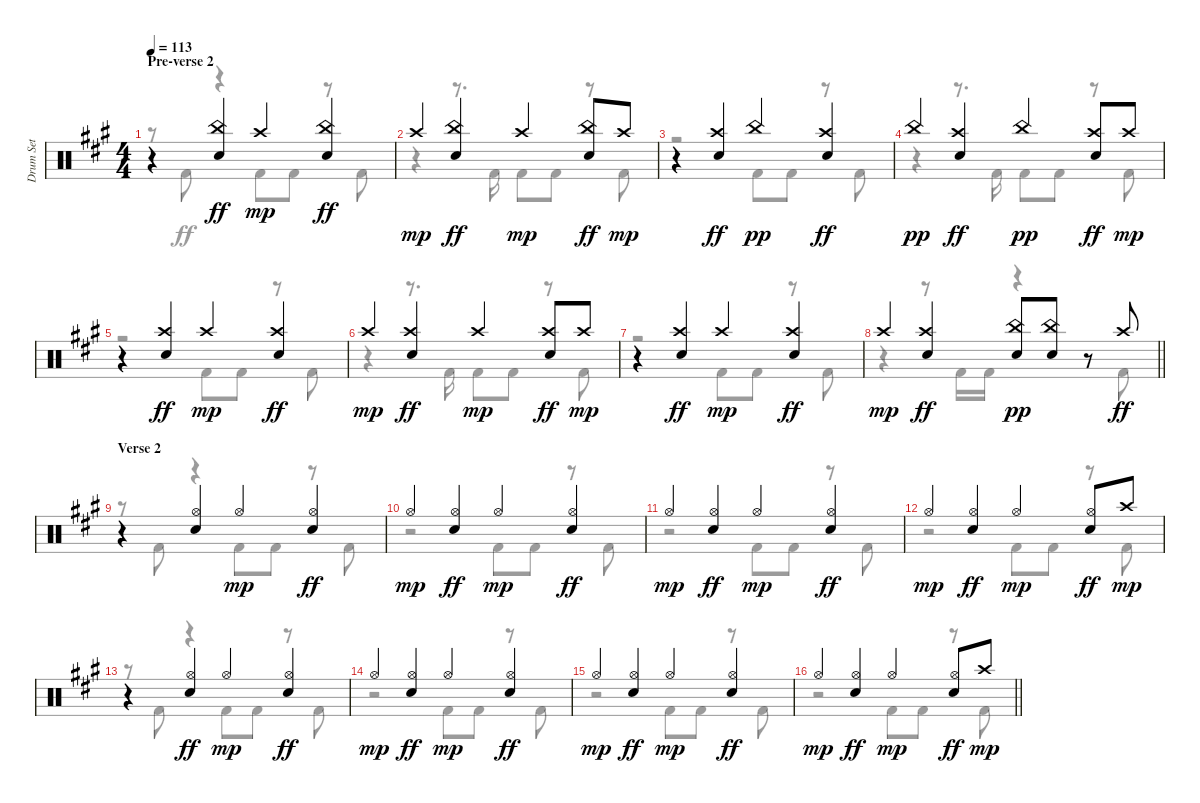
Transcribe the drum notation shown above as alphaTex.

\track ("Drum Set" "Drum Set") {instrument percussion}
\staff {score}
\articulation defaults
\voice
\ts (4 4)
\section ("" "Pre-verse 2")
\tempo 113
\clef neutral
\ks f#minor
r.4{dy mp} ("China (hit)" "Electric Snare (hit)").4{dy ff} "Crash high (hit)".4{dy mp} ("China (hit)" "Electric Snare (hit)").4{dy ff} |
"Crash high (hit)".4{dy mp} ("China (hit)" "Electric Snare (hit)").4{dy ff} "Crash high (hit)".4{dy mp} ("China (hit)" "Electric Snare (hit)").8{dy ff} "Crash high (hit)".8{dy mp} |
r.4 ("Crash high (hit)" "Electric Snare (hit)").4{dy ff} "China (hit)".4{dy pp} ("Crash high (hit)" "Electric Snare (hit)").4{dy ff} |
"China (hit)".4{dy pp} ("Crash high (hit)" "Electric Snare (hit)").4{dy ff} "China (hit)".4{dy pp} ("Crash high (hit)" "Electric Snare (hit)").8{dy ff} "Crash high (hit)".8{dy mp} |
r.4 ("Crash high (hit)" "Electric Snare (hit)").4{dy ff} "Crash high (hit)".4{dy mp} ("Crash high (hit)" "Electric Snare (hit)").4{dy ff} |
"Crash high (hit)".4{dy mp} ("Crash high (hit)" "Electric Snare (hit)").4{dy ff} "Crash high (hit)".4{dy mp} ("Crash high (hit)" "Electric Snare (hit)").8{dy ff} "Crash high (hit)".8{dy mp} |
r.4 ("Crash high (hit)" "Electric Snare (hit)").4{dy ff} "Crash high (hit)".4{dy mp} ("Crash high (hit)" "Electric Snare (hit)").4{dy ff} |
\barLineRight lightlight "Crash high (hit)".4{dy mp}
("Crash high (hit)" "Electric Snare (hit)").4{dy ff} ("Electric Snare (hit)" "China (hit)").8{dy pp} ("Electric Snare (hit)" "China (hit)").8 r.8 "Crash high (hit)".8{dy ff} |
\section ("" "Verse 2")
r.4 ("Hi-Hat (open)" "Electric Snare (hit)").4 "Hi-Hat (open)".4{dy mp} ("Hi-Hat (open)" "Electric Snare (hit)").4{dy ff} |
"Hi-Hat (open)".4{dy mp} ("Hi-Hat (open)" "Electric Snare (hit)").4{dy ff} "Hi-Hat (open)".4{dy mp} ("Hi-Hat (open)" "Electric Snare (hit)").4{dy ff} |
"Hi-Hat (open)".4{dy mp} ("Hi-Hat (open)" "Electric Snare (hit)").4{dy ff} "Hi-Hat (open)".4{dy mp} ("Hi-Hat (open)" "Electric Snare (hit)").4{dy ff} |
"Hi-Hat (open)".4{dy mp} ("Hi-Hat (open)" "Electric Snare (hit)").4{dy ff} "Hi-Hat (open)".4{dy mp} ("Hi-Hat (open)" "Electric Snare (hit)").8{dy ff} "Crash high (hit)".8{dy mp} |
r.4 ("Hi-Hat (open)" "Electric Snare (hit)").4{dy ff} "Hi-Hat (open)".4{dy mp} ("Hi-Hat (open)" "Electric Snare (hit)").4{dy ff} |
"Hi-Hat (open)".4{dy mp} ("Hi-Hat (open)" "Electric Snare (hit)").4{dy ff} "Hi-Hat (open)".4{dy mp} ("Hi-Hat (open)" "Electric Snare (hit)").4{dy ff} |
"Hi-Hat (open)".4{dy mp} ("Hi-Hat (open)" "Electric Snare (hit)").4{dy ff} "Hi-Hat (open)".4{dy mp} ("Hi-Hat (open)" "Electric Snare (hit)").4{dy ff} |
\barLineRight lightlight "Hi-Hat (open)".4{dy mp}
("Hi-Hat (open)" "Electric Snare (hit)").4{dy ff} "Hi-Hat (open)".4{dy mp} ("Hi-Hat (open)" "Electric Snare (hit)").8{dy ff} "Crash high (hit)".8{dy mp}
\voice
\clef neutral
\ottava regular
\simile none
\ks f#minor
r.8{dy ff} "Kick (hit) 2".8 r.4 "Kick (hit) 2".8 "Kick (hit) 2".8 r.8 "Kick (hit) 2".8 |
r.4 r.8{d} "Kick (hit) 2".16 "Kick (hit) 2".8 "Kick (hit) 2".8 r.8 "Kick (hit) 2".8 |
r.2 "Kick (hit) 2".8 "Kick (hit) 2".8 r.8 "Kick (hit) 2".8 |
r.4 r.8{d} "Kick (hit) 2".16 "Kick (hit) 2".8 "Kick (hit) 2".8 r.8 "Kick (hit) 2".8 |
r.2 "Kick (hit) 2".8 "Kick (hit) 2".8 r.8 "Kick (hit) 2".8 |
r.4 r.8{d} "Kick (hit) 2".16 "Kick (hit) 2".8 "Kick (hit) 2".8 r.8 "Kick (hit) 2".8 |
r.2 "Kick (hit) 2".8 "Kick (hit) 2".8 r.8 "Kick (hit) 2".8 |
\barLineRight lightlight
r.4 r.8 "Kick (hit) 2".16 "Kick (hit) 2".16 r.4 r.8 "Kick (hit) 2".8 |
r.8 "Kick (hit) 2".8 r.4 "Kick (hit) 2".8 "Kick (hit) 2".8 r.8 "Kick (hit) 2".8 |
r.2 "Kick (hit) 2".8 "Kick (hit) 2".8 r.8 "Kick (hit) 2".8 |
r.2 "Kick (hit) 2".8 "Kick (hit) 2".8 r.8 "Kick (hit) 2".8 |
r.2 "Kick (hit) 2".8 "Kick (hit) 2".8 r.8 "Kick (hit) 2".8 |
r.8 "Kick (hit) 2".8 r.4 "Kick (hit) 2".8 "Kick (hit) 2".8 r.8 "Kick (hit) 2".8 |
r.2 "Kick (hit) 2".8 "Kick (hit) 2".8 r.8 "Kick (hit) 2".8 |
r.2 "Kick (hit) 2".8 "Kick (hit) 2".8 r.8 "Kick (hit) 2".8 |
\barLineRight lightlight
r.2 "Kick (hit) 2".8 "Kick (hit) 2".8 r.8 "Kick (hit) 2".8
